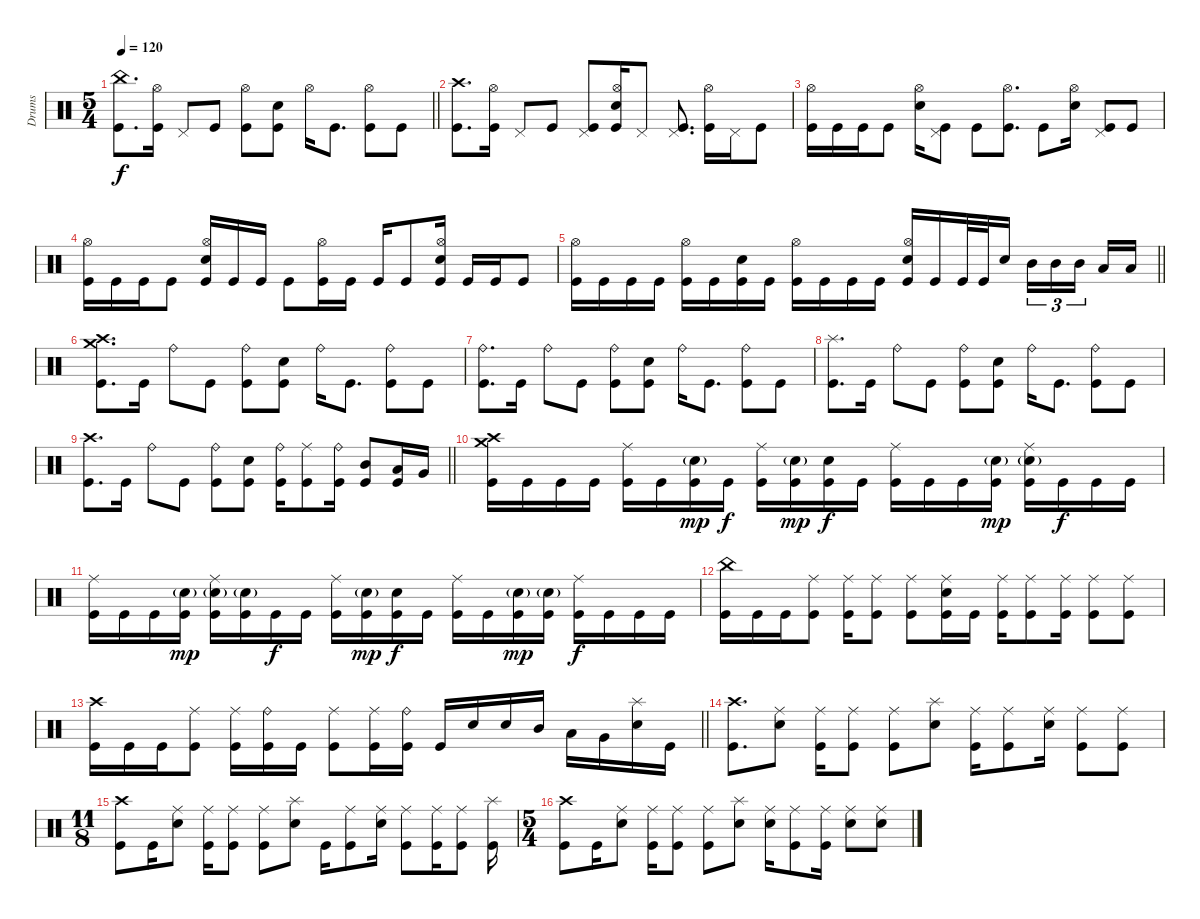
\track ("Drums" "Drums") {instrument percussion}
\staff
\articulation defaults
\ts (5 4)
\tempo 120
\clef neutral
\barLineRight lightlight
\ks c
("China (hit)" "Kick (hit)").8{d dy f} ("Hi-Hat (open)" "Kick (hit)").16 "Pedal Hi-Hat (hit)".8 "Kick (hit)".8 ("Hi-Hat (open)" "Kick (hit)").8 ("Electric Snare (hit)" "Kick (hit)").8 "Hi-Hat (open)".16 "Kick (hit)".8{d} ("Hi-Hat (open)" "Kick (hit)").8 "Kick (hit)".8 |
\section ("" "")
("Crash high (hit)" "Kick (hit)").8{d} ("Hi-Hat (open)" "Kick (hit)").16 "Pedal Hi-Hat (hit)".8 "Kick (hit)".8 ("Pedal Hi-Hat (hit)" "Kick (hit)").8 ("Hi-Hat (open)" "Electric Snare (hit)" "Kick (hit)").16 "Pedal Hi-Hat (hit)".8 ("Pedal Hi-Hat (hit)" "Kick (hit)").8{d} ("Hi-Hat (open)" "Kick (hit)").16 "Pedal Hi-Hat (hit)".16 "Kick (hit)".8 |
("Hi-Hat (open)" "Kick (hit)").16 "Kick (hit)".16 "Kick (hit)".16 "Kick (hit)".8 ("Hi-Hat (open)" "Electric Snare (hit)").16 ("Pedal Hi-Hat (hit)" "Kick (hit)").8 "Kick (hit)".8 ("Hi-Hat (open)" "Kick (hit)").8{d} "Kick (hit)".8 ("Hi-Hat (open)" "Electric Snare (hit)").16 ("Pedal Hi-Hat (hit)" "Kick (hit)").8 "Kick (hit)".8 |
("Hi-Hat (open)" "Kick (hit)").16 "Kick (hit)".16 "Kick (hit)".16 "Kick (hit)".8 ("Hi-Hat (open)" "Electric Snare (hit)" "Kick (hit)").16 "Kick (hit)".16 "Kick (hit)".16 "Kick (hit)".8 ("Hi-Hat (open)" "Kick (hit)").16 "Kick (hit)".16 "Kick (hit)".16 "Kick (hit)".8 ("Hi-Hat (open)" "Electric Snare (hit)" "Kick (hit)").16 "Kick (hit)".16 "Kick (hit)".16 "Kick (hit)".8 |
\barLineRight lightlight
("Hi-Hat (open)" "Kick (hit)").16 "Kick (hit)".16 "Kick (hit)".16 "Kick (hit)".16 ("Hi-Hat (open)" "Kick (hit)").16 "Kick (hit)".16 ("Electric Snare (hit)" "Kick (hit)").16 "Kick (hit)".16 ("Hi-Hat (open)" "Kick (hit)").16 "Kick (hit)".16 "Kick (hit)".16 "Kick (hit)".16 ("Hi-Hat (open)" "Electric Snare (hit)" "Kick (hit)").16 "Kick (hit)".16 "Kick (hit)".32 "Kick (hit)".32 "Electric Snare (hit)".16 "Mid Tom (hit)".16{tu (3 2)} "Mid Tom (hit)".16{tu (3 2)} "Mid Tom (hit)".16{tu (3 2) beam splitsecondary} "Low Tom (hit)".16 "Low Tom (hit)".16 |
\section ("" "")
("Crash high (hit)" "Crash medium (hit)" "Kick (hit)").8{d} "Kick (hit)".16 "Ride (bell)".8 "Kick (hit)".8 ("Ride (bell)" "Kick (hit)").8 ("Electric Snare (hit)" "Kick (hit)").8 "Ride (bell)".16 "Kick (hit)".8{d} ("Ride (bell)" "Kick (hit)").8 "Kick (hit)".8 |
("Ride (bell)" "Kick (hit)").8{d} "Kick (hit)".16 "Ride (bell)".8 "Kick (hit)".8 ("Ride (bell)" "Kick (hit)").8 ("Electric Snare (hit)" "Kick (hit)").8 "Ride (bell)".16 "Kick (hit)".8{d} ("Ride (bell)" "Kick (hit)").8 "Kick (hit)".8 |
("Splash (hit)" "Kick (hit)").8{d} "Kick (hit)".16 "Ride (bell)".8 "Kick (hit)".8 ("Ride (bell)" "Kick (hit)").8 ("Electric Snare (hit)" "Kick (hit)").8 "Ride (bell)".16 "Kick (hit)".8{d} ("Ride (bell)" "Kick (hit)").8 "Kick (hit)".8 |
\barLineRight lightlight
("Crash high (hit)" "Kick (hit)").8{d} "Kick (hit)".16 "Ride (bell)".8 "Kick (hit)".8 ("Ride (bell)" "Kick (hit)").8 ("Electric Snare (hit)" "Kick (hit)").8 ("Ride (bell)" "Kick (hit)").16 ("Ride (middle)" "Kick (hit)").8 ("Ride (bell)" "Kick (hit)").16 ("Mid Tom (hit)" "Kick (hit)").8 ("Low Tom (hit)" "Kick (hit)").16 "Very Low Tom (hit)".16 |
("Crash high (hit)" "Crash medium (hit)" "Kick (hit)").16 "Kick (hit)".16 "Kick (hit)".16 "Kick (hit)".16 ("Ride (middle)" "Kick (hit)").16 "Kick (hit)".16 ("Electric Snare (hit)"{g} "Kick (hit)").16{dy mp} "Kick (hit)".16{dy f} ("Ride (middle)" "Kick (hit)").16 ("Electric Snare (hit)"{g} "Kick (hit)").16{dy mp} ("Electric Snare (hit)" "Kick (hit)").16{dy f} "Kick (hit)".16 ("Ride (middle)" "Kick (hit)").16 "Kick (hit)".16 "Kick (hit)".16 ("Electric Snare (hit)"{g} "Kick (hit)").16{dy mp} ("Ride (middle)" "Electric Snare (hit)"{g} "Kick (hit)").16 "Kick (hit)".16{dy f} "Kick (hit)".16 "Kick (hit)".16 |
("Ride (middle)" "Kick (hit)").16 "Kick (hit)".16 "Kick (hit)".16 ("Electric Snare (hit)"{g} "Kick (hit)").16{dy mp} ("Ride (middle)" "Electric Snare (hit)"{g} "Kick (hit)").16 ("Electric Snare (hit)"{g} "Kick (hit)").16 "Kick (hit)".16{dy f} "Kick (hit)".16 ("Ride (middle)" "Kick (hit)").16 ("Electric Snare (hit)"{g} "Kick (hit)").16{dy mp} ("Electric Snare (hit)" "Kick (hit)").16{dy f} "Kick (hit)".16 ("Ride (middle)" "Kick (hit)").16 "Kick (hit)".16 ("Electric Snare (hit)"{g} "Kick (hit)").16{dy mp} ("Electric Snare (hit)"{g} "Kick (hit)").16 ("Ride (middle)" "Kick (hit)").16{dy f} "Kick (hit)".16 "Kick (hit)".16 "Kick (hit)".16 |
("China (hit)" "Kick (hit)").16 "Kick (hit)".16 "Kick (hit)".16 ("Ride (middle)" "Kick (hit)").8 ("Ride (middle)" "Kick (hit)").16 ("Ride (middle)" "Kick (hit)").8 ("Ride (middle)" "Kick (hit)").8 ("Ride (middle)" "Electric Snare (hit)" "Kick (hit)").16 "Kick (hit)".16 ("Ride (middle)" "Kick (hit)").16 ("Ride (middle)" "Kick (hit)").8 ("Ride (middle)" "Kick (hit)").16 ("Ride (middle)" "Kick (hit)").8 ("Ride (middle)" "Kick (hit)").8 |
\barLineRight lightlight
("Crash high (hit)" "Kick (hit)").16 "Kick (hit)".16 "Kick (hit)".16 ("Ride (middle)" "Kick (hit)").8 ("Ride (middle)" "Kick (hit)").16 ("Ride (bell)" "Kick (hit)").16 "Kick (hit)".16 ("Ride (middle)" "Kick (hit)").8 ("Ride (middle)" "Kick (hit)").16 ("Ride (bell)" "Kick (hit)").16 "Kick (hit)".16 "Electric Snare (hit)".16 "Electric Snare (hit)".16 "Mid Tom (hit)".16 "Low Tom (hit)".16 "Very Low Tom (hit)".16 ("Splash (hit)" "Electric Snare (hit)").16 "Kick (hit)".16 |
\section ("" "")
("Crash high (hit)" "Kick (hit)").8{d} ("Ride (middle)" "Electric Snare (hit)").8 ("Ride (middle)" "Kick (hit)").16 ("Ride (middle)" "Kick (hit)").8 ("Ride (middle)" "Kick (hit)").8 ("Splash (hit)" "Electric Snare (hit)").8 ("Ride (middle)" "Kick (hit)").16 ("Ride (middle)" "Kick (hit)").8 ("Ride (middle)" "Electric Snare (hit)").16 ("Ride (middle)" "Kick (hit)").8 ("Ride (middle)" "Kick (hit)").8 |
\ts (11 8)
("Crash high (hit)" "Kick (hit)").8 "Kick (hit)".16 ("Ride (middle)" "Electric Snare (hit)").8 ("Ride (middle)" "Kick (hit)").16 ("Ride (middle)" "Kick (hit)").8 ("Ride (middle)" "Kick (hit)").8 ("Splash (hit)" "Electric Snare (hit)").8 "Kick (hit)".16 ("Ride (middle)" "Kick (hit)").8 ("Ride (middle)" "Electric Snare (hit)").16 ("Ride (middle)" "Kick (hit)").8 ("Ride (middle)" "Kick (hit)").16 ("Ride (middle)" "Kick (hit)").8 ("Splash (hit)" "Kick (hit)").16 |
\ts (5 4)
("Crash high (hit)" "Kick (hit)").8 "Kick (hit)".16 ("Ride (middle)" "Electric Snare (hit)").8 ("Ride (middle)" "Kick (hit)").16 ("Ride (middle)" "Kick (hit)").8 ("Ride (middle)" "Kick (hit)").8 ("Splash (hit)" "Electric Snare (hit)").8 ("Ride (middle)" "Electric Snare (hit)").16 ("Ride (middle)" "Kick (hit)").8 ("Ride (middle)" "Kick (hit)").16 ("Ride (middle)" "Electric Snare (hit)").8 ("Ride (middle)" "Electric Snare (hit)").8
